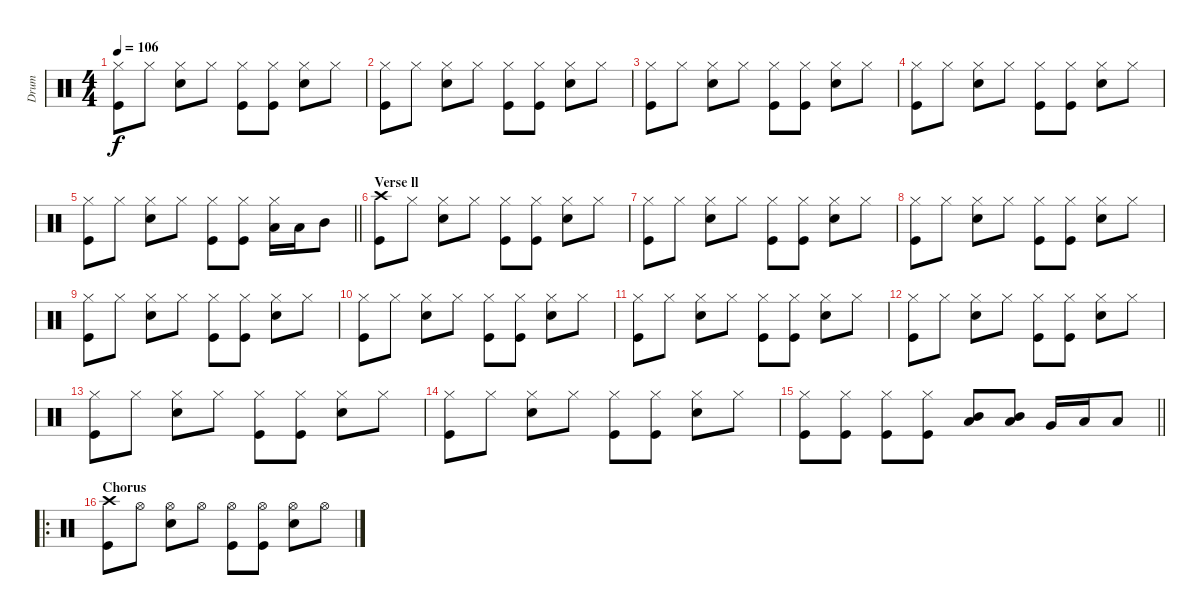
\track ("Drum" "Drum") {instrument percussion}
\staff {score}
\articulation defaults
\ts (4 4)
\tempo 106
\clef neutral
\ks c
("Hi-Hat (closed)" "Kick (hit)").8{dy f} "Hi-Hat (closed)".8 ("Hi-Hat (closed)" "Electric Snare (hit)").8 "Hi-Hat (closed)".8 ("Hi-Hat (closed)" "Kick (hit)").8 ("Hi-Hat (closed)" "Kick (hit)").8 ("Hi-Hat (closed)" "Electric Snare (hit)").8 "Hi-Hat (closed)".8 |
("Hi-Hat (closed)" "Kick (hit)").8 "Hi-Hat (closed)".8 ("Hi-Hat (closed)" "Electric Snare (hit)").8 "Hi-Hat (closed)".8 ("Hi-Hat (closed)" "Kick (hit)").8 ("Hi-Hat (closed)" "Kick (hit)").8 ("Hi-Hat (closed)" "Electric Snare (hit)").8 "Hi-Hat (closed)".8 |
("Hi-Hat (closed)" "Kick (hit)").8 "Hi-Hat (closed)".8 ("Hi-Hat (closed)" "Electric Snare (hit)").8 "Hi-Hat (closed)".8 ("Hi-Hat (closed)" "Kick (hit)").8 ("Hi-Hat (closed)" "Kick (hit)").8 ("Hi-Hat (closed)" "Electric Snare (hit)").8 "Hi-Hat (closed)".8 |
("Hi-Hat (closed)" "Kick (hit)").8 "Hi-Hat (closed)".8 ("Hi-Hat (closed)" "Electric Snare (hit)").8 "Hi-Hat (closed)".8 ("Hi-Hat (closed)" "Kick (hit)").8 ("Hi-Hat (closed)" "Kick (hit)").8 ("Hi-Hat (closed)" "Electric Snare (hit)").8 "Hi-Hat (closed)".8 |
\barLineRight lightlight
("Hi-Hat (closed)" "Kick (hit)").8 "Hi-Hat (closed)".8 ("Hi-Hat (closed)" "Electric Snare (hit)").8 "Hi-Hat (closed)".8 ("Hi-Hat (closed)" "Kick (hit)").8 ("Hi-Hat (closed)" "Kick (hit)").8 ("Hi-Hat (closed)" "Low Tom (hit)").16 "Low Tom (hit)".16 "Mid Tom (hit)".8 |
\section ("" "Verse ll")
("Crash high (hit)" "Kick (hit)").8 "Hi-Hat (closed)".8 ("Hi-Hat (closed)" "Electric Snare (hit)").8 "Hi-Hat (closed)".8 ("Hi-Hat (closed)" "Kick (hit)").8 ("Hi-Hat (closed)" "Kick (hit)").8 ("Hi-Hat (closed)" "Electric Snare (hit)").8 "Hi-Hat (closed)".8 |
("Hi-Hat (closed)" "Kick (hit)").8 "Hi-Hat (closed)".8 ("Hi-Hat (closed)" "Electric Snare (hit)").8 "Hi-Hat (closed)".8 ("Hi-Hat (closed)" "Kick (hit)").8 ("Hi-Hat (closed)" "Kick (hit)").8 ("Hi-Hat (closed)" "Electric Snare (hit)").8 "Hi-Hat (closed)".8 |
("Hi-Hat (closed)" "Kick (hit)").8 "Hi-Hat (closed)".8 ("Hi-Hat (closed)" "Electric Snare (hit)").8 "Hi-Hat (closed)".8 ("Hi-Hat (closed)" "Kick (hit)").8 ("Hi-Hat (closed)" "Kick (hit)").8 ("Hi-Hat (closed)" "Electric Snare (hit)").8 "Hi-Hat (closed)".8 |
("Hi-Hat (closed)" "Kick (hit)").8 "Hi-Hat (closed)".8 ("Hi-Hat (closed)" "Electric Snare (hit)").8 "Hi-Hat (closed)".8 ("Hi-Hat (closed)" "Kick (hit)").8 ("Hi-Hat (closed)" "Kick (hit)").8 ("Hi-Hat (closed)" "Electric Snare (hit)").8 "Hi-Hat (closed)".8 |
("Hi-Hat (closed)" "Kick (hit)").8 "Hi-Hat (closed)".8 ("Hi-Hat (closed)" "Electric Snare (hit)").8 "Hi-Hat (closed)".8 ("Hi-Hat (closed)" "Kick (hit)").8 ("Hi-Hat (closed)" "Kick (hit)").8 ("Hi-Hat (closed)" "Electric Snare (hit)").8 "Hi-Hat (closed)".8 |
("Hi-Hat (closed)" "Kick (hit)").8 "Hi-Hat (closed)".8 ("Hi-Hat (closed)" "Electric Snare (hit)").8 "Hi-Hat (closed)".8 ("Hi-Hat (closed)" "Kick (hit)").8 ("Hi-Hat (closed)" "Kick (hit)").8 ("Hi-Hat (closed)" "Electric Snare (hit)").8 "Hi-Hat (closed)".8 |
("Hi-Hat (closed)" "Kick (hit)").8 "Hi-Hat (closed)".8 ("Hi-Hat (closed)" "Electric Snare (hit)").8 "Hi-Hat (closed)".8 ("Hi-Hat (closed)" "Kick (hit)").8 ("Hi-Hat (closed)" "Kick (hit)").8 ("Hi-Hat (closed)" "Electric Snare (hit)").8 "Hi-Hat (closed)".8 |
("Hi-Hat (closed)" "Kick (hit)").8 "Hi-Hat (closed)".8 ("Hi-Hat (closed)" "Electric Snare (hit)").8 "Hi-Hat (closed)".8 ("Hi-Hat (closed)" "Kick (hit)").8 ("Hi-Hat (closed)" "Kick (hit)").8 ("Hi-Hat (closed)" "Electric Snare (hit)").8 "Hi-Hat (closed)".8 |
("Hi-Hat (closed)" "Kick (hit)").8 "Hi-Hat (closed)".8 ("Hi-Hat (closed)" "Electric Snare (hit)").8 "Hi-Hat (closed)".8 ("Hi-Hat (closed)" "Kick (hit)").8 ("Hi-Hat (closed)" "Kick (hit)").8 ("Hi-Hat (closed)" "Electric Snare (hit)").8 "Hi-Hat (closed)".8 |
\barLineRight lightlight
("Hi-Hat (closed)" "Kick (hit)").8 ("Hi-Hat (closed)" "Kick (hit)").8 ("Hi-Hat (closed)" "Kick (hit)").8 ("Hi-Hat (closed)" "Kick (hit)").8 ("Mid Tom (hit)" "Low Tom (hit)").8 ("Mid Tom (hit)" "Low Tom (hit)").8 "Very Low Tom (hit)".16 "Low Floor Tom (hit)".16 "Low Tom (hit)".8 |
\ro
\section ("" "Chorus")
("Crash high (hit)" "Kick (hit)").8 "Hi-Hat (open)".8 ("Hi-Hat (open)" "Electric Snare (hit)").8 "Hi-Hat (open)".8 ("Hi-Hat (open)" "Kick (hit)").8 ("Hi-Hat (open)" "Kick (hit)").8 ("Hi-Hat (open)" "Electric Snare (hit)").8 "Hi-Hat (open)".8
